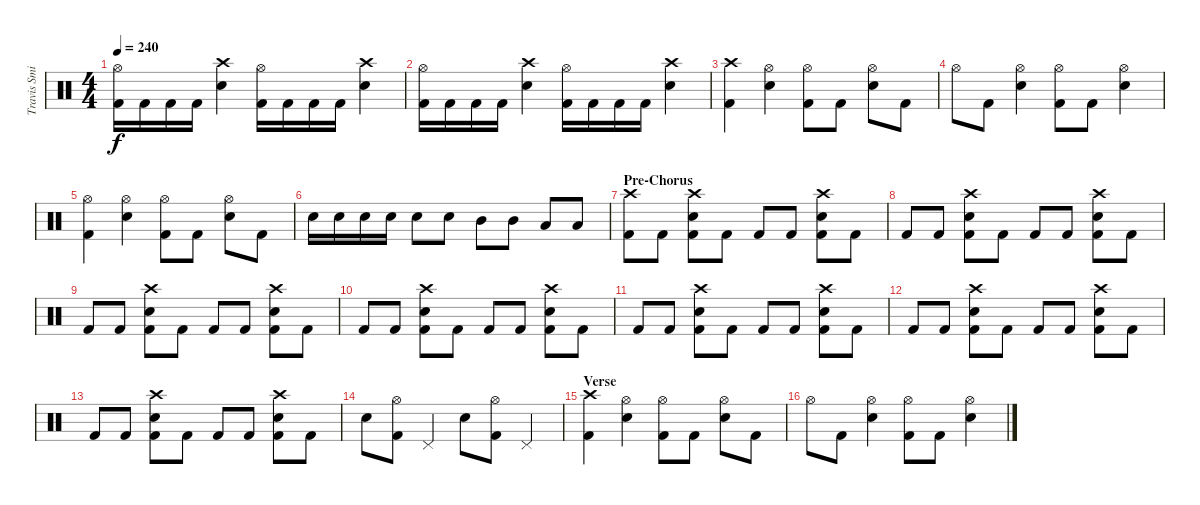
\track ("Travis Smith (Drums)" "Travis Smi") {instrument percussion}
\staff {score}
\articulation defaults
\ts (4 4)
\tempo 240
\clef neutral
\ks c
("Kick (hit) 2" "Hi-Hat (open)").16{dy f} "Kick (hit) 2".16 "Kick (hit) 2".16 "Kick (hit) 2".16 ("Snare (hit) 2" "Crash high (hit)").4 ("Kick (hit) 2" "Hi-Hat (open)").16 "Kick (hit) 2".16 "Kick (hit) 2".16 "Kick (hit) 2".16 ("Snare (hit) 2" "Crash high (hit)").4 |
("Kick (hit) 2" "Hi-Hat (open)").16 "Kick (hit) 2".16 "Kick (hit) 2".16 "Kick (hit) 2".16 ("Snare (hit) 2" "Crash high (hit)").4 ("Kick (hit) 2" "Hi-Hat (open)").16 "Kick (hit) 2".16 "Kick (hit) 2".16 "Kick (hit) 2".16 ("Snare (hit) 2" "Crash high (hit)").4 |
("Kick (hit) 2" "Crash high (hit)").4 ("Snare (hit) 2" "Hi-Hat (open)").4 ("Kick (hit) 2" "Hi-Hat (open)").8 "Kick (hit) 2".8 ("Snare (hit) 2" "Hi-Hat (open)").8 "Kick (hit) 2".8 |
"Hi-Hat (open)".8 "Kick (hit) 2".8 ("Snare (hit) 2" "Hi-Hat (open)").4 ("Kick (hit) 2" "Hi-Hat (open)").8 "Kick (hit) 2".8 ("Snare (hit) 2" "Hi-Hat (open)").4 |
("Kick (hit) 2" "Hi-Hat (open)").4 ("Snare (hit) 2" "Hi-Hat (open)").4 ("Kick (hit) 2" "Hi-Hat (open)").8 "Kick (hit) 2".8 ("Snare (hit) 2" "Hi-Hat (open)").8 "Kick (hit) 2".8 |
"Snare (hit) 2".16 "Snare (hit) 2".16 "Snare (hit) 2".16 "Snare (hit) 2".16 "Snare (hit) 2".8 "Snare (hit) 2".8 "Mid Tom (hit)".8 "Mid Tom (hit)".8 "Low Tom (hit)".8 "Low Tom (hit)".8 |
\section ("" "Pre-Chorus")
("Kick (hit) 2" "Crash high (hit)").8 "Kick (hit) 2".8 ("Kick (hit) 2" "Snare (hit) 2" "Crash high (hit)").8 "Kick (hit) 2".8 "Kick (hit) 2".8 "Kick (hit) 2".8 ("Kick (hit) 2" "Snare (hit) 2" "Crash high (hit)").8 "Kick (hit) 2".8 |
"Kick (hit) 2".8 "Kick (hit) 2".8 ("Kick (hit) 2" "Snare (hit) 2" "Crash high (hit)").8 "Kick (hit) 2".8 "Kick (hit) 2".8 "Kick (hit) 2".8 ("Kick (hit) 2" "Snare (hit) 2" "Crash high (hit)").8 "Kick (hit) 2".8 |
"Kick (hit) 2".8 "Kick (hit) 2".8 ("Kick (hit) 2" "Snare (hit) 2" "Crash high (hit)").8 "Kick (hit) 2".8 "Kick (hit) 2".8 "Kick (hit) 2".8 ("Kick (hit) 2" "Snare (hit) 2" "Crash high (hit)").8 "Kick (hit) 2".8 |
"Kick (hit) 2".8 "Kick (hit) 2".8 ("Kick (hit) 2" "Snare (hit) 2" "Crash high (hit)").8 "Kick (hit) 2".8 "Kick (hit) 2".8 "Kick (hit) 2".8 ("Kick (hit) 2" "Snare (hit) 2" "Crash high (hit)").8 "Kick (hit) 2".8 |
"Kick (hit) 2".8 "Kick (hit) 2".8 ("Kick (hit) 2" "Snare (hit) 2" "Crash high (hit)").8 "Kick (hit) 2".8 "Kick (hit) 2".8 "Kick (hit) 2".8 ("Kick (hit) 2" "Snare (hit) 2" "Crash high (hit)").8 "Kick (hit) 2".8 |
"Kick (hit) 2".8 "Kick (hit) 2".8 ("Kick (hit) 2" "Snare (hit) 2" "Crash high (hit)").8 "Kick (hit) 2".8 "Kick (hit) 2".8 "Kick (hit) 2".8 ("Kick (hit) 2" "Snare (hit) 2" "Crash high (hit)").8 "Kick (hit) 2".8 |
"Kick (hit) 2".8 "Kick (hit) 2".8 ("Kick (hit) 2" "Snare (hit) 2" "Crash high (hit)").8 "Kick (hit) 2".8 "Kick (hit) 2".8 "Kick (hit) 2".8 ("Kick (hit) 2" "Snare (hit) 2" "Crash high (hit)").8 "Kick (hit) 2".8 |
"Snare (hit) 2".8 ("Kick (hit) 2" "Hi-Hat (open)").8 "Pedal Hi-Hat (hit)".4 "Snare (hit) 2".8 ("Kick (hit) 2" "Hi-Hat (open)").8 "Pedal Hi-Hat (hit)".4 |
\section ("" "Verse")
("Kick (hit) 2" "Crash high (hit)").4 ("Snare (hit) 2" "Hi-Hat (open)").4 ("Kick (hit) 2" "Hi-Hat (open)").8 "Kick (hit) 2".8 ("Snare (hit) 2" "Hi-Hat (open)").8 "Kick (hit) 2".8 |
"Hi-Hat (open)".8 "Kick (hit) 2".8 ("Snare (hit) 2" "Hi-Hat (open)").4 ("Kick (hit) 2" "Hi-Hat (open)").8 "Kick (hit) 2".8 ("Snare (hit) 2" "Hi-Hat (open)").4
